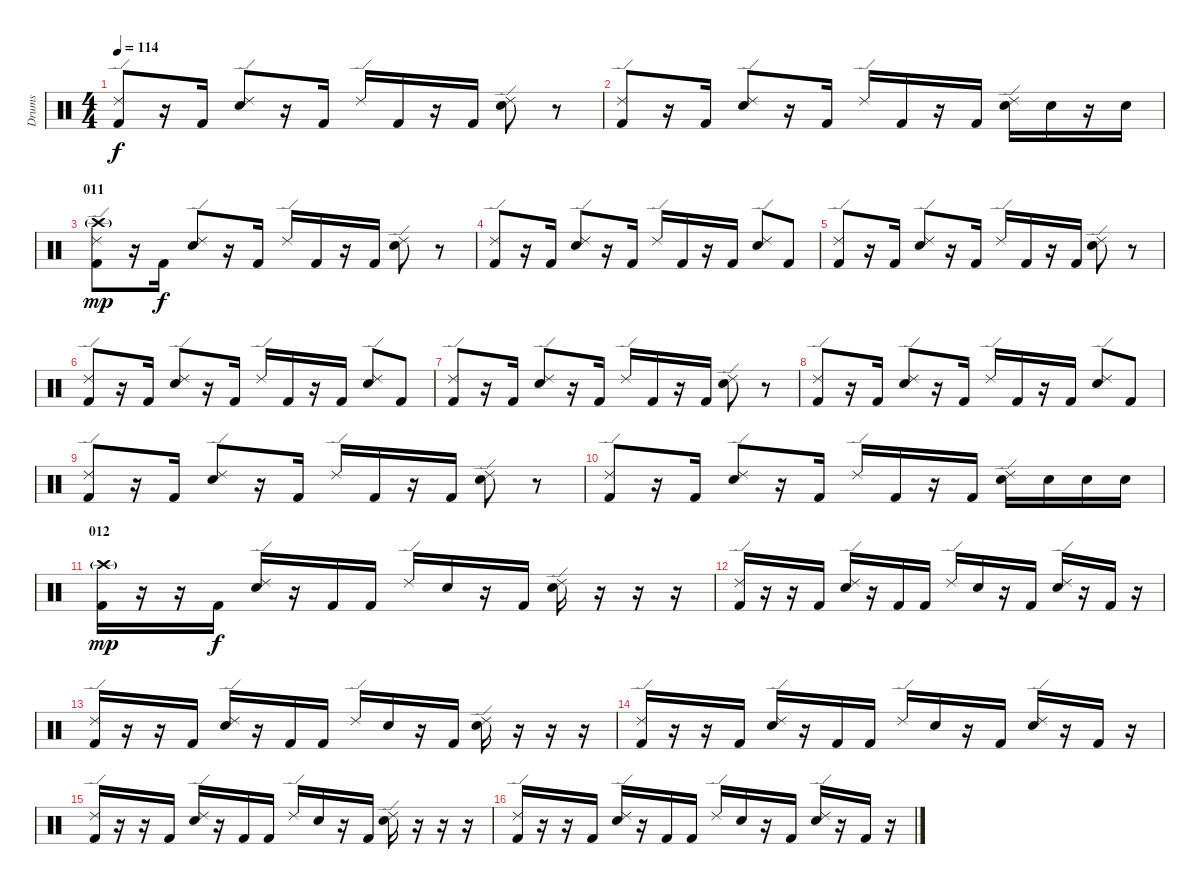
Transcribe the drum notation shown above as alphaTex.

\track ("Drums" "Drums") {instrument percussion}
\staff {score}
\articulation defaults
\ts (4 4)
\tempo 114
\clef neutral
\ks c
("Ride (edge) 2" "Kick (hit) 2").8{dy f} r.16 "Kick (hit) 2".16 ("Ride (edge) 2" "Electric Snare (hit)").8 r.16 "Kick (hit) 2".16 "Ride (edge) 2".16 "Kick (hit) 2".16 r.16 "Kick (hit) 2".16 ("Ride (edge) 2" "Electric Snare (hit)").8 r.8 |
("Ride (edge) 2" "Kick (hit) 2").8 r.16 "Kick (hit) 2".16 ("Ride (edge) 2" "Electric Snare (hit)").8 r.16 "Kick (hit) 2".16 "Ride (edge) 2".16 "Kick (hit) 2".16 r.16 "Kick (hit) 2".16 ("Ride (edge) 2" "Electric Snare (hit)").16 "Electric Snare (hit)".16 r.16 "Electric Snare (hit)".16 |
\section ("" "011")
("Ride (edge) 2" "Crash high (hit)"{g} "Kick (hit) 2").8{dy mp} r.16 "Kick (hit) 2".16{dy f} ("Ride (edge) 2" "Electric Snare (hit)").8 r.16 "Kick (hit) 2".16 "Ride (edge) 2".16 "Kick (hit) 2".16 r.16 "Kick (hit) 2".16 ("Ride (edge) 2" "Electric Snare (hit)").8 r.8 |
("Ride (edge) 2" "Kick (hit) 2").8 r.16 "Kick (hit) 2".16 ("Ride (edge) 2" "Electric Snare (hit)").8 r.16 "Kick (hit) 2".16 "Ride (edge) 2".16 "Kick (hit) 2".16 r.16 "Kick (hit) 2".16 ("Ride (edge) 2" "Electric Snare (hit)").8 "Kick (hit) 2".8 |
("Ride (edge) 2" "Kick (hit) 2").8 r.16 "Kick (hit) 2".16 ("Ride (edge) 2" "Electric Snare (hit)").8 r.16 "Kick (hit) 2".16 "Ride (edge) 2".16 "Kick (hit) 2".16 r.16 "Kick (hit) 2".16 ("Ride (edge) 2" "Electric Snare (hit)").8 r.8 |
("Ride (edge) 2" "Kick (hit) 2").8 r.16 "Kick (hit) 2".16 ("Ride (edge) 2" "Electric Snare (hit)").8 r.16 "Kick (hit) 2".16 "Ride (edge) 2".16 "Kick (hit) 2".16 r.16 "Kick (hit) 2".16 ("Ride (edge) 2" "Electric Snare (hit)").8 "Kick (hit) 2".8 |
("Ride (edge) 2" "Kick (hit) 2").8 r.16 "Kick (hit) 2".16 ("Ride (edge) 2" "Electric Snare (hit)").8 r.16 "Kick (hit) 2".16 "Ride (edge) 2".16 "Kick (hit) 2".16 r.16 "Kick (hit) 2".16 ("Ride (edge) 2" "Electric Snare (hit)").8 r.8 |
("Ride (edge) 2" "Kick (hit) 2").8 r.16 "Kick (hit) 2".16 ("Ride (edge) 2" "Electric Snare (hit)").8 r.16 "Kick (hit) 2".16 "Ride (edge) 2".16 "Kick (hit) 2".16 r.16 "Kick (hit) 2".16 ("Ride (edge) 2" "Electric Snare (hit)").8 "Kick (hit) 2".8 |
("Ride (edge) 2" "Kick (hit) 2").8 r.16 "Kick (hit) 2".16 ("Ride (edge) 2" "Electric Snare (hit)").8 r.16 "Kick (hit) 2".16 "Ride (edge) 2".16 "Kick (hit) 2".16 r.16 "Kick (hit) 2".16 ("Ride (edge) 2" "Electric Snare (hit)").8 r.8 |
("Ride (edge) 2" "Kick (hit) 2").8 r.16 "Kick (hit) 2".16 ("Ride (edge) 2" "Electric Snare (hit)").8 r.16 "Kick (hit) 2".16 "Ride (edge) 2".16 "Kick (hit) 2".16 r.16 "Kick (hit) 2".16 ("Ride (edge) 2" "Electric Snare (hit)").16 "Electric Snare (hit)".16 "Electric Snare (hit)".16 "Electric Snare (hit)".16 |
\section ("" "012")
("Kick (hit) 2" "Crash high (hit)"{g}).16{dy mp} r.16 r.16 "Kick (hit) 2".16{dy f} ("Electric Snare (hit)" "Ride (edge) 2").16 r.16 "Kick (hit) 2".16 "Kick (hit) 2".16 "Ride (edge) 2".16 "Electric Snare (hit)".16 r.16 "Kick (hit) 2".16 ("Electric Snare (hit)" "Ride (edge) 2").16 r.16 r.16 r.16 |
("Kick (hit) 2" "Ride (edge) 2").16 r.16 r.16 "Kick (hit) 2".16 ("Electric Snare (hit)" "Ride (edge) 2").16 r.16 "Kick (hit) 2".16 "Kick (hit) 2".16 "Ride (edge) 2".16 "Electric Snare (hit)".16 r.16 "Kick (hit) 2".16 ("Electric Snare (hit)" "Ride (edge) 2").16 r.16 "Kick (hit) 2".16 r.16 |
("Kick (hit) 2" "Ride (edge) 2").16 r.16 r.16 "Kick (hit) 2".16 ("Electric Snare (hit)" "Ride (edge) 2").16 r.16 "Kick (hit) 2".16 "Kick (hit) 2".16 "Ride (edge) 2".16 "Electric Snare (hit)".16 r.16 "Kick (hit) 2".16 ("Electric Snare (hit)" "Ride (edge) 2").16 r.16 r.16 r.16 |
("Kick (hit) 2" "Ride (edge) 2").16 r.16 r.16 "Kick (hit) 2".16 ("Electric Snare (hit)" "Ride (edge) 2").16 r.16 "Kick (hit) 2".16 "Kick (hit) 2".16 "Ride (edge) 2".16 "Electric Snare (hit)".16 r.16 "Kick (hit) 2".16 ("Electric Snare (hit)" "Ride (edge) 2").16 r.16 "Kick (hit) 2".16 r.16 |
("Kick (hit) 2" "Ride (edge) 2").16 r.16 r.16 "Kick (hit) 2".16 ("Electric Snare (hit)" "Ride (edge) 2").16 r.16 "Kick (hit) 2".16 "Kick (hit) 2".16 "Ride (edge) 2".16 "Electric Snare (hit)".16 r.16 "Kick (hit) 2".16 ("Electric Snare (hit)" "Ride (edge) 2").16 r.16 r.16 r.16 |
("Kick (hit) 2" "Ride (edge) 2").16 r.16 r.16 "Kick (hit) 2".16 ("Electric Snare (hit)" "Ride (edge) 2").16 r.16 "Kick (hit) 2".16 "Kick (hit) 2".16 "Ride (edge) 2".16 "Electric Snare (hit)".16 r.16 "Kick (hit) 2".16 ("Electric Snare (hit)" "Ride (edge) 2").16 r.16 "Kick (hit) 2".16 r.16
